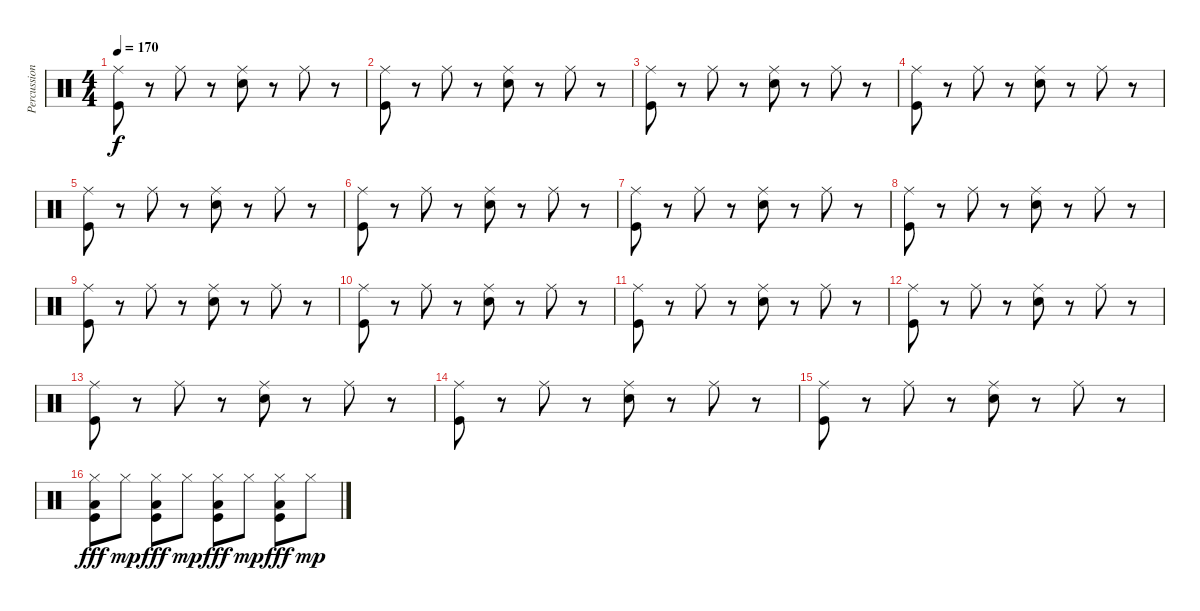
\track ("Percussion" "Percussion") {instrument percussion}
\staff {score}
\articulation defaults
\ts (4 4)
\tempo 170
\clef neutral
\ks c
("Kick (hit)" "Ride (middle)").8{dy f} r.8 "Ride (middle)".8 r.8 ("Snare (hit) 2" "Ride (middle)").8 r.8 "Ride (middle)".8 r.8 |
("Kick (hit)" "Ride (middle)").8 r.8 "Ride (middle)".8 r.8 ("Snare (hit) 2" "Ride (middle)").8 r.8 "Ride (middle)".8 r.8 |
("Kick (hit)" "Ride (middle)").8 r.8 "Ride (middle)".8 r.8 ("Snare (hit) 2" "Ride (middle)").8 r.8 "Ride (middle)".8 r.8 |
("Kick (hit)" "Ride (middle)").8 r.8 "Ride (middle)".8 r.8 ("Snare (hit) 2" "Ride (middle)").8 r.8 "Ride (middle)".8 r.8 |
("Kick (hit)" "Ride (middle)").8 r.8 "Ride (middle)".8 r.8 ("Snare (hit) 2" "Ride (middle)").8 r.8 "Ride (middle)".8 r.8 |
("Kick (hit)" "Ride (middle)").8 r.8 "Ride (middle)".8 r.8 ("Snare (hit) 2" "Ride (middle)").8 r.8 "Ride (middle)".8 r.8 |
("Kick (hit)" "Ride (middle)").8 r.8 "Ride (middle)".8 r.8 ("Snare (hit) 2" "Ride (middle)").8 r.8 "Ride (middle)".8 r.8 |
("Kick (hit)" "Ride (middle)").8 r.8 "Ride (middle)".8 r.8 ("Snare (hit) 2" "Ride (middle)").8 r.8 "Ride (middle)".8 r.8 |
("Kick (hit)" "Ride (middle)").8 r.8 "Ride (middle)".8 r.8 ("Snare (hit) 2" "Ride (middle)").8 r.8 "Ride (middle)".8 r.8 |
("Kick (hit)" "Ride (middle)").8 r.8 "Ride (middle)".8 r.8 ("Snare (hit) 2" "Ride (middle)").8 r.8 "Ride (middle)".8 r.8 |
("Kick (hit)" "Ride (middle)").8 r.8 "Ride (middle)".8 r.8 ("Snare (hit) 2" "Ride (middle)").8 r.8 "Ride (middle)".8 r.8 |
("Kick (hit)" "Ride (middle)").8 r.8 "Ride (middle)".8 r.8 ("Snare (hit) 2" "Ride (middle)").8 r.8 "Ride (middle)".8 r.8 |
("Kick (hit)" "Ride (middle)").8 r.8 "Ride (middle)".8 r.8 ("Snare (hit) 2" "Ride (middle)").8 r.8 "Ride (middle)".8 r.8 |
("Kick (hit)" "Ride (middle)").8 r.8 "Ride (middle)".8 r.8 ("Snare (hit) 2" "Ride (middle)").8 r.8 "Ride (middle)".8 r.8 |
("Kick (hit)" "Ride (middle)").8 r.8 "Ride (middle)".8 r.8 ("Snare (hit) 2" "Ride (middle)").8 r.8 "Ride (middle)".8 r.8 |
("Low Floor Tom (hit)" "Hi-Hat (closed)" "Kick (hit)").8{dy fff} "Hi-Hat (closed)".8{dy mp} ("Low Floor Tom (hit)" "Hi-Hat (closed)" "Kick (hit)").8{dy fff} "Hi-Hat (closed)".8{dy mp} ("Low Floor Tom (hit)" "Hi-Hat (closed)" "Kick (hit)").8{dy fff} "Hi-Hat (closed)".8{dy mp} ("Low Floor Tom (hit)" "Hi-Hat (closed)" "Kick (hit)").8{dy fff} "Hi-Hat (closed)".8{dy mp}
